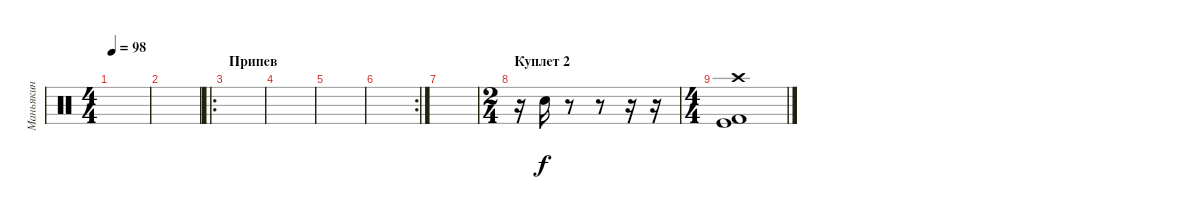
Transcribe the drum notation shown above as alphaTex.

\track ("Маньякин" "Маньякин") {instrument percussion}
\staff {score}
\articulation defaults
\ts (4 4)
\tempo 98
\clef neutral
\ks c
|
|
\ro
\section ("" "Припев")
|
|
|
\rc 2
|
|
\ts (2 4)
\section ("" "Куплет 2")
r.16 "Snare (hit) 2".16 r.8 r.8 r.16 r.16 |
\ts (4 4)
("Crash high (hit)" "Kick (hit)" "Kick (hit) 2").1
